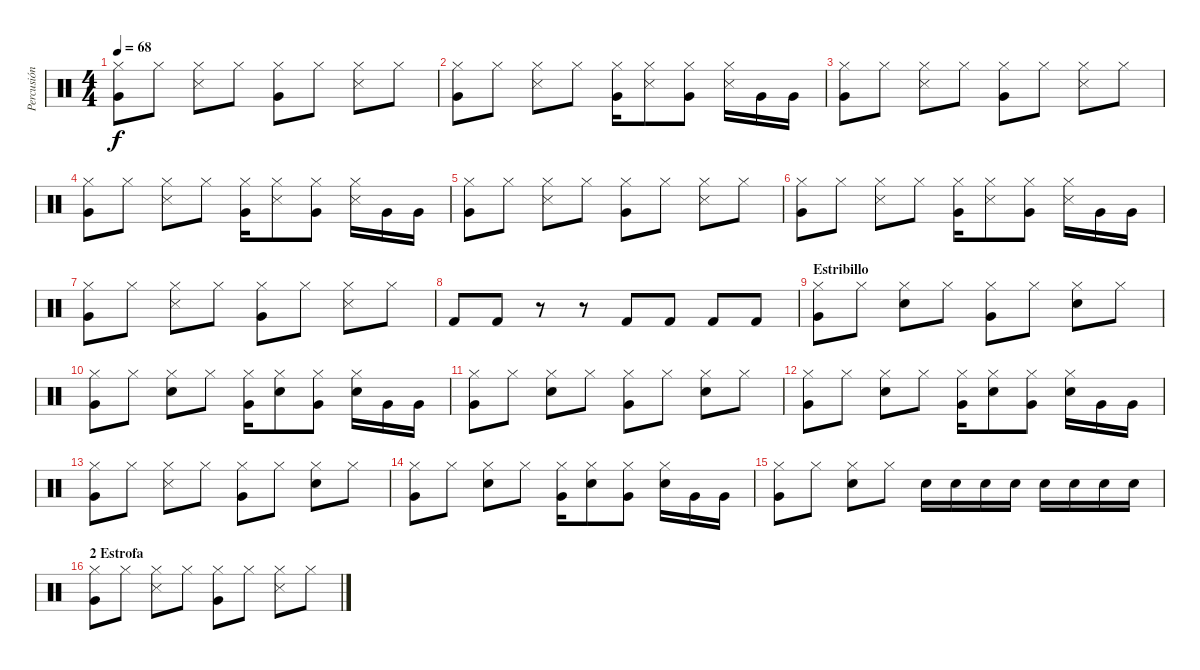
\track ("Percusión" "Percusión") {instrument percussion}
\staff {score}
\articulation defaults
\ts (4 4)
\tempo 68
\clef neutral
\ks c
("Hi-Hat (closed)" "Very Low Tom (hit)").8{dy f} "Hi-Hat (closed)".8 ("Hi-Hat (closed)" "Snare (side stick) 3").8 "Hi-Hat (closed)".8 ("Hi-Hat (closed)" "Very Low Tom (hit)").8 "Hi-Hat (closed)".8 ("Hi-Hat (closed)" "Snare (side stick) 3").8 "Hi-Hat (closed)".8 |
("Hi-Hat (closed)" "Very Low Tom (hit)").8 "Hi-Hat (closed)".8 ("Hi-Hat (closed)" "Snare (side stick) 3").8 "Hi-Hat (closed)".8 ("Hi-Hat (closed)" "Very Low Tom (hit)").16 ("Hi-Hat (closed)" "Snare (side stick) 3").8 ("Hi-Hat (closed)" "Very Low Tom (hit)").8 ("Hi-Hat (closed)" "Snare (side stick) 3").16 "Very Low Tom (hit)".16 "Very Low Tom (hit)".16 |
("Hi-Hat (closed)" "Very Low Tom (hit)").8 "Hi-Hat (closed)".8 ("Hi-Hat (closed)" "Snare (side stick) 3").8 "Hi-Hat (closed)".8 ("Hi-Hat (closed)" "Very Low Tom (hit)").8 "Hi-Hat (closed)".8 ("Hi-Hat (closed)" "Snare (side stick) 3").8 "Hi-Hat (closed)".8 |
("Hi-Hat (closed)" "Very Low Tom (hit)").8 "Hi-Hat (closed)".8 ("Hi-Hat (closed)" "Snare (side stick) 3").8 "Hi-Hat (closed)".8 ("Hi-Hat (closed)" "Very Low Tom (hit)").16 ("Hi-Hat (closed)" "Snare (side stick) 3").8 ("Hi-Hat (closed)" "Very Low Tom (hit)").8 ("Hi-Hat (closed)" "Snare (side stick) 3").16 "Very Low Tom (hit)".16 "Very Low Tom (hit)".16 |
("Hi-Hat (closed)" "Very Low Tom (hit)").8 "Hi-Hat (closed)".8 ("Hi-Hat (closed)" "Snare (side stick) 3").8 "Hi-Hat (closed)".8 ("Hi-Hat (closed)" "Very Low Tom (hit)").8 "Hi-Hat (closed)".8 ("Hi-Hat (closed)" "Snare (side stick) 3").8 "Hi-Hat (closed)".8 |
("Hi-Hat (closed)" "Very Low Tom (hit)").8 "Hi-Hat (closed)".8 ("Hi-Hat (closed)" "Snare (side stick) 3").8 "Hi-Hat (closed)".8 ("Hi-Hat (closed)" "Very Low Tom (hit)").16 ("Hi-Hat (closed)" "Snare (side stick) 3").8 ("Hi-Hat (closed)" "Very Low Tom (hit)").8 ("Hi-Hat (closed)" "Snare (side stick) 3").16 "Very Low Tom (hit)".16 "Very Low Tom (hit)".16 |
("Hi-Hat (closed)" "Very Low Tom (hit)").8 "Hi-Hat (closed)".8 ("Hi-Hat (closed)" "Snare (side stick) 3").8 "Hi-Hat (closed)".8 ("Hi-Hat (closed)" "Very Low Tom (hit)").8 "Hi-Hat (closed)".8 ("Hi-Hat (closed)" "Snare (side stick) 3").8 "Hi-Hat (closed)".8 |
"Kick (hit) 2".8 "Kick (hit) 2".8 r.8 r.8 "Kick (hit) 2".8 "Kick (hit) 2".8 "Kick (hit) 2".8 "Kick (hit) 2".8 |
\section ("" "Estribillo")
("Hi-Hat (closed)" "Very Low Tom (hit)").8 "Hi-Hat (closed)".8 ("Hi-Hat (closed)" "Snare (hit) 2").8 "Hi-Hat (closed)".8 ("Hi-Hat (closed)" "Very Low Tom (hit)").8 "Hi-Hat (closed)".8 ("Hi-Hat (closed)" "Snare (hit) 2").8 "Hi-Hat (closed)".8 |
("Hi-Hat (closed)" "Very Low Tom (hit)").8 "Hi-Hat (closed)".8 ("Hi-Hat (closed)" "Snare (hit) 2").8 "Hi-Hat (closed)".8 ("Hi-Hat (closed)" "Very Low Tom (hit)").16 ("Hi-Hat (closed)" "Snare (hit) 2").8 ("Hi-Hat (closed)" "Very Low Tom (hit)").8 ("Hi-Hat (closed)" "Snare (hit) 2").16 "Very Low Tom (hit)".16 "Very Low Tom (hit)".16 |
("Hi-Hat (closed)" "Very Low Tom (hit)").8 "Hi-Hat (closed)".8 ("Hi-Hat (closed)" "Snare (hit) 2").8 "Hi-Hat (closed)".8 ("Hi-Hat (closed)" "Very Low Tom (hit)").8 "Hi-Hat (closed)".8 ("Hi-Hat (closed)" "Snare (hit) 2").8 "Hi-Hat (closed)".8 |
("Hi-Hat (closed)" "Very Low Tom (hit)").8 "Hi-Hat (closed)".8 ("Hi-Hat (closed)" "Snare (hit) 2").8 "Hi-Hat (closed)".8 ("Hi-Hat (closed)" "Very Low Tom (hit)").16 ("Hi-Hat (closed)" "Snare (hit) 2").8 ("Hi-Hat (closed)" "Very Low Tom (hit)").8 ("Hi-Hat (closed)" "Snare (hit) 2").16 "Very Low Tom (hit)".16 "Very Low Tom (hit)".16 |
("Hi-Hat (closed)" "Very Low Tom (hit)").8 "Hi-Hat (closed)".8 ("Hi-Hat (closed)" "Snare (side stick) 3").8 "Hi-Hat (closed)".8 ("Hi-Hat (closed)" "Very Low Tom (hit)").8 "Hi-Hat (closed)".8 ("Hi-Hat (closed)" "Snare (hit) 2").8 "Hi-Hat (closed)".8 |
("Hi-Hat (closed)" "Very Low Tom (hit)").8 "Hi-Hat (closed)".8 ("Hi-Hat (closed)" "Snare (hit) 2").8 "Hi-Hat (closed)".8 ("Hi-Hat (closed)" "Very Low Tom (hit)").16 ("Hi-Hat (closed)" "Snare (hit) 2").8 ("Hi-Hat (closed)" "Very Low Tom (hit)").8 ("Hi-Hat (closed)" "Snare (hit) 2").16 "Very Low Tom (hit)".16 "Very Low Tom (hit)".16 |
("Hi-Hat (closed)" "Very Low Tom (hit)").8 "Hi-Hat (closed)".8 ("Hi-Hat (closed)" "Snare (hit) 2").8 "Hi-Hat (closed)".8 "Snare (hit) 2".16 "Snare (hit) 2".16 "Snare (hit) 2".16 "Snare (hit) 2".16 "Snare (hit) 2".16 "Snare (hit) 2".16 "Snare (hit) 2".16 "Snare (hit) 2".16 |
\section ("" "2 Estrofa")
("Hi-Hat (closed)" "Very Low Tom (hit)").8 "Hi-Hat (closed)".8 ("Hi-Hat (closed)" "Snare (side stick) 3").8 "Hi-Hat (closed)".8 ("Hi-Hat (closed)" "Very Low Tom (hit)").8 "Hi-Hat (closed)".8 ("Hi-Hat (closed)" "Snare (side stick) 3").8 "Hi-Hat (closed)".8
